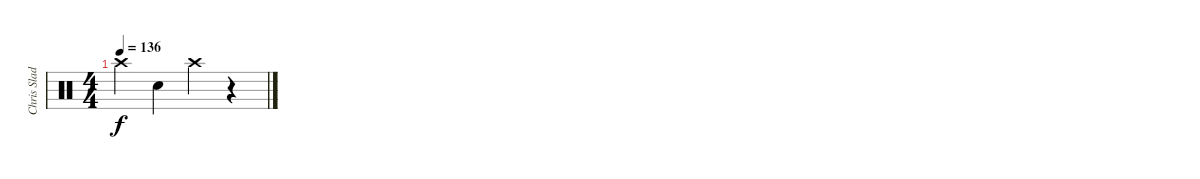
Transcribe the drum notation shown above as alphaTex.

\track ("Chris Slade" "Chris Slad") {instrument percussion}
\staff {score}
\articulation defaults
\ts (4 4)
\tempo 136
\clef neutral
\ks c "Crash high (hit)".4{dy f} "Snare (hit) 2".4 "Crash high (hit)".4
r.4
